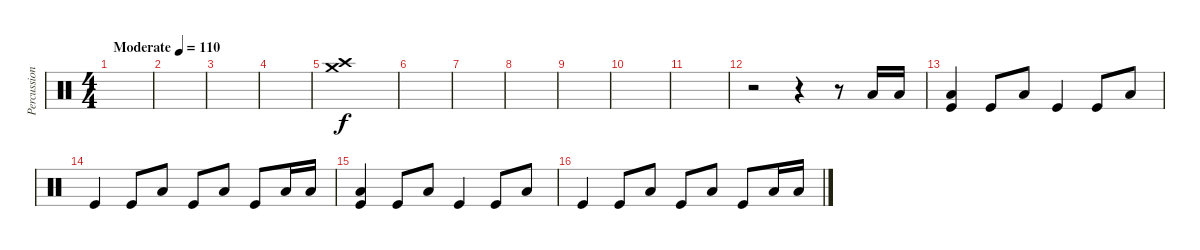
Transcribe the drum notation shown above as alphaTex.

\track ("Percussion" "Percussion") {instrument percussion}
\staff {score}
\articulation defaults
\ts (4 4)
\tempo (110 "Moderate")
\clef neutral
\ks c
|
|
|
|
("Crash high (hit)" "Crash medium (hit)").1 |
|
|
|
|
|
|
r.2 r.4 r.8 "Low Floor Tom (hit)".16{dy f} "Low Floor Tom (hit)".16 |
("Kick (hit)" "Low Floor Tom (hit)").4 "Kick (hit)".8 "Low Floor Tom (hit)".8 "Kick (hit)".4 "Kick (hit)".8 "Low Floor Tom (hit)".8 |
"Kick (hit)".4 "Kick (hit)".8 "Low Floor Tom (hit)".8 "Kick (hit)".8 "Low Floor Tom (hit)".8 "Kick (hit)".8 "Low Floor Tom (hit)".16 "Low Floor Tom (hit)".16 |
("Kick (hit)" "Low Floor Tom (hit)").4 "Kick (hit)".8 "Low Floor Tom (hit)".8 "Kick (hit)".4 "Kick (hit)".8 "Low Floor Tom (hit)".8 |
"Kick (hit)".4 "Kick (hit)".8 "Low Floor Tom (hit)".8 "Kick (hit)".8 "Low Floor Tom (hit)".8 "Kick (hit)".8 "Low Floor Tom (hit)".16 "Low Floor Tom (hit)".16
